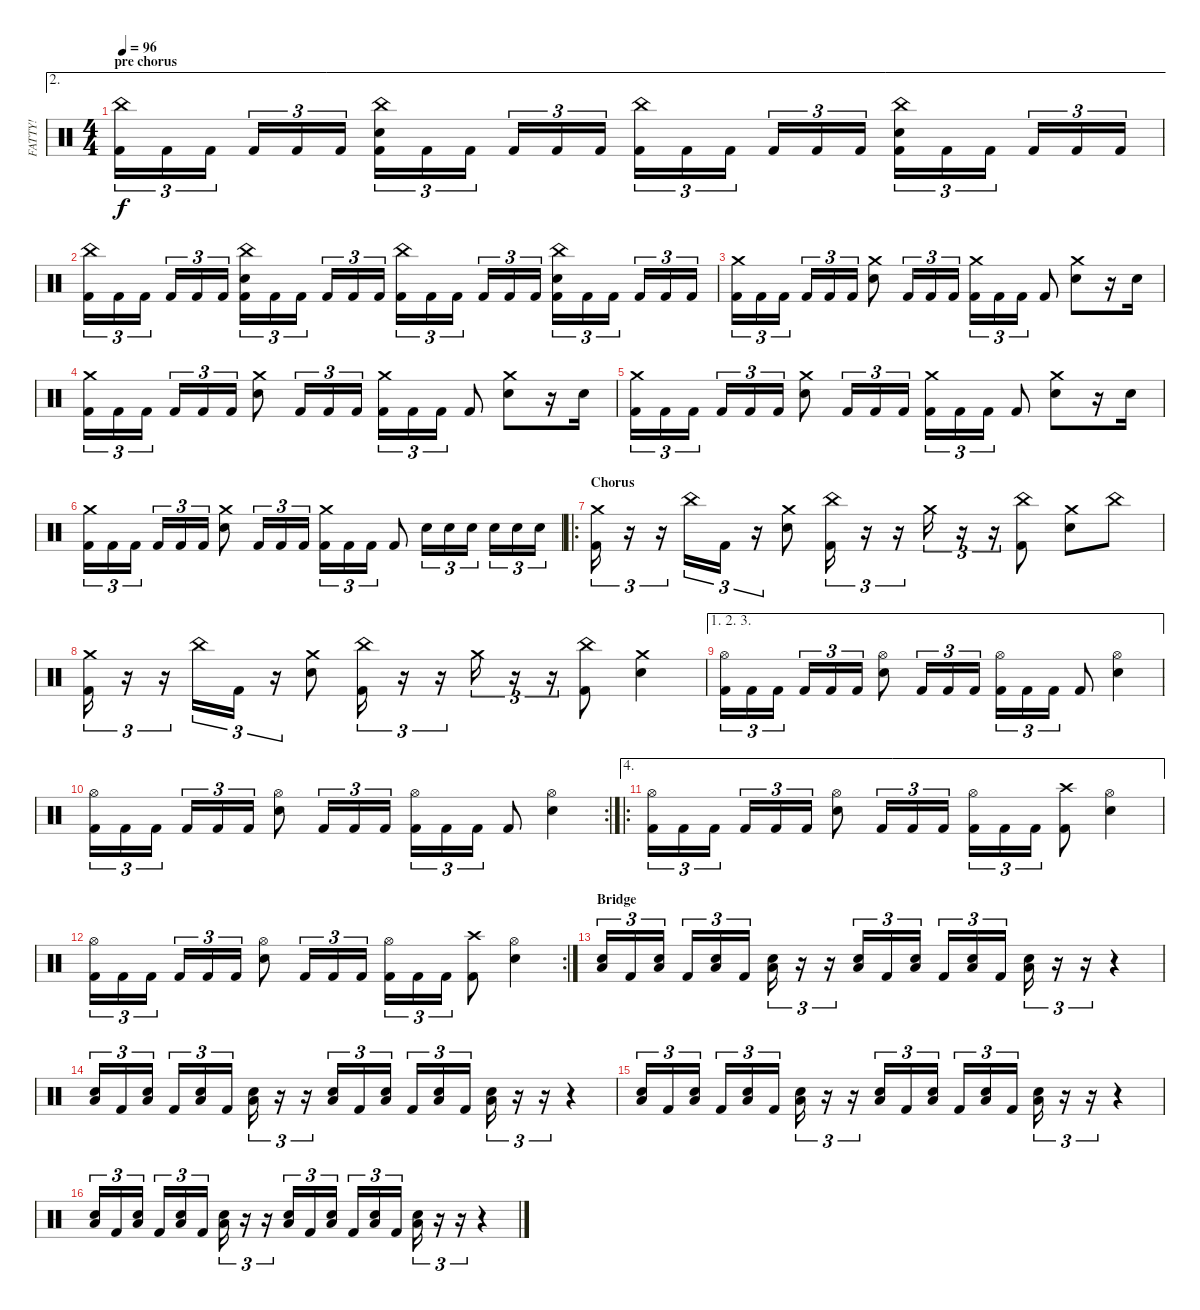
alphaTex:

\track ("FATTY!" "FATTY!") {instrument percussion}
\staff {score}
\articulation defaults
\ae 2
\ts (4 4)
\section ("" "pre chorus")
\tempo 96
\clef neutral
\ks c
("China (hit)" "Kick (hit) 2").16{tu (3 2) dy f} "Kick (hit) 2".16{tu (3 2)} "Kick (hit) 2".16{tu (3 2)} "Kick (hit) 2".16{tu (3 2)} "Kick (hit) 2".16{tu (3 2)} "Kick (hit) 2".16{tu (3 2)} ("China (hit)" "Electric Snare (hit)" "Kick (hit) 2").16{tu (3 2)} "Kick (hit) 2".16{tu (3 2)} "Kick (hit) 2".16{tu (3 2)} "Kick (hit) 2".16{tu (3 2)} "Kick (hit) 2".16{tu (3 2)} "Kick (hit) 2".16{tu (3 2)} ("China (hit)" "Kick (hit) 2").16{tu (3 2)} "Kick (hit) 2".16{tu (3 2)} "Kick (hit) 2".16{tu (3 2)} "Kick (hit) 2".16{tu (3 2)} "Kick (hit) 2".16{tu (3 2)} "Kick (hit) 2".16{tu (3 2)} ("China (hit)" "Electric Snare (hit)" "Kick (hit) 2").16{tu (3 2)} "Kick (hit) 2".16{tu (3 2)} "Kick (hit) 2".16{tu (3 2)} "Kick (hit) 2".16{tu (3 2)} "Kick (hit) 2".16{tu (3 2)} "Kick (hit) 2".16{tu (3 2)} |
("China (hit)" "Kick (hit) 2").16{tu (3 2)} "Kick (hit) 2".16{tu (3 2)} "Kick (hit) 2".16{tu (3 2)} "Kick (hit) 2".16{tu (3 2)} "Kick (hit) 2".16{tu (3 2)} "Kick (hit) 2".16{tu (3 2)} ("China (hit)" "Electric Snare (hit)" "Kick (hit) 2").16{tu (3 2)} "Kick (hit) 2".16{tu (3 2)} "Kick (hit) 2".16{tu (3 2)} "Kick (hit) 2".16{tu (3 2)} "Kick (hit) 2".16{tu (3 2)} "Kick (hit) 2".16{tu (3 2)} ("China (hit)" "Kick (hit) 2").16{tu (3 2)} "Kick (hit) 2".16{tu (3 2)} "Kick (hit) 2".16{tu (3 2)} "Kick (hit) 2".16{tu (3 2)} "Kick (hit) 2".16{tu (3 2)} "Kick (hit) 2".16{tu (3 2)} ("China (hit)" "Electric Snare (hit)" "Kick (hit) 2").16{tu (3 2)} "Kick (hit) 2".16{tu (3 2)} "Kick (hit) 2".16{tu (3 2)} "Kick (hit) 2".16{tu (3 2)} "Kick (hit) 2".16{tu (3 2)} "Kick (hit) 2".16{tu (3 2)} |
("Crash medium (hit)" "Kick (hit) 2").16{tu (3 2)} "Kick (hit) 2".16{tu (3 2)} "Kick (hit) 2".16{tu (3 2)} "Kick (hit) 2".16{tu (3 2)} "Kick (hit) 2".16{tu (3 2)} "Kick (hit) 2".16{tu (3 2)} ("Crash medium (hit)" "Electric Snare (hit)").8 "Kick (hit) 2".16{tu (3 2)} "Kick (hit) 2".16{tu (3 2)} "Kick (hit) 2".16{tu (3 2)} ("Crash medium (hit)" "Kick (hit) 2").16{tu (3 2)} "Kick (hit) 2".16{tu (3 2)} "Kick (hit) 2".16{tu (3 2)} "Kick (hit) 2".8 ("Crash medium (hit)" "Electric Snare (hit)").8 r.16 "Electric Snare (hit)".16 |
("Crash medium (hit)" "Kick (hit) 2").16{tu (3 2)} "Kick (hit) 2".16{tu (3 2)} "Kick (hit) 2".16{tu (3 2)} "Kick (hit) 2".16{tu (3 2)} "Kick (hit) 2".16{tu (3 2)} "Kick (hit) 2".16{tu (3 2)} ("Crash medium (hit)" "Electric Snare (hit)").8 "Kick (hit) 2".16{tu (3 2)} "Kick (hit) 2".16{tu (3 2)} "Kick (hit) 2".16{tu (3 2)} ("Crash medium (hit)" "Kick (hit) 2").16{tu (3 2)} "Kick (hit) 2".16{tu (3 2)} "Kick (hit) 2".16{tu (3 2)} "Kick (hit) 2".8 ("Crash medium (hit)" "Electric Snare (hit)").8 r.16 "Electric Snare (hit)".16 |
("Crash medium (hit)" "Kick (hit) 2").16{tu (3 2)} "Kick (hit) 2".16{tu (3 2)} "Kick (hit) 2".16{tu (3 2)} "Kick (hit) 2".16{tu (3 2)} "Kick (hit) 2".16{tu (3 2)} "Kick (hit) 2".16{tu (3 2)} ("Crash medium (hit)" "Electric Snare (hit)").8 "Kick (hit) 2".16{tu (3 2)} "Kick (hit) 2".16{tu (3 2)} "Kick (hit) 2".16{tu (3 2)} ("Crash medium (hit)" "Kick (hit) 2").16{tu (3 2)} "Kick (hit) 2".16{tu (3 2)} "Kick (hit) 2".16{tu (3 2)} "Kick (hit) 2".8 ("Crash medium (hit)" "Electric Snare (hit)").8 r.16 "Electric Snare (hit)".16 |
("Crash medium (hit)" "Kick (hit) 2").16{tu (3 2)} "Kick (hit) 2".16{tu (3 2)} "Kick (hit) 2".16{tu (3 2)} "Kick (hit) 2".16{tu (3 2)} "Kick (hit) 2".16{tu (3 2)} "Kick (hit) 2".16{tu (3 2)} ("Crash medium (hit)" "Electric Snare (hit)").8 "Kick (hit) 2".16{tu (3 2)} "Kick (hit) 2".16{tu (3 2)} "Kick (hit) 2".16{tu (3 2)} ("Crash medium (hit)" "Kick (hit) 2").16{tu (3 2)} "Kick (hit) 2".16{tu (3 2)} "Kick (hit) 2".16{tu (3 2)} "Kick (hit) 2".8 "Electric Snare (hit)".16{tu (3 2)} "Electric Snare (hit)".16{tu (3 2)} "Electric Snare (hit)".16{tu (3 2)} "Electric Snare (hit)".16{tu (3 2)} "Electric Snare (hit)".16{tu (3 2)} "Electric Snare (hit)".16{tu (3 2)} |
\ro
\section ("" "Chorus")
("Crash medium (hit)" "Kick (hit) 2").16{tu (3 2)} r.16{tu (3 2)} r.16{tu (3 2)} "China (hit)".16{tu (3 2)} "Kick (hit) 2".16{tu (3 2)} r.16{tu (3 2)} ("Crash medium (hit)" "Electric Snare (hit)").8 ("China (hit)" "Kick (hit) 2").16{tu (3 2)} r.16{tu (3 2)} r.16{tu (3 2)} "Crash medium (hit)".16{tu (3 2)} r.16{tu (3 2)} r.16{tu (3 2)} ("China (hit)" "Kick (hit) 2").8 ("Crash medium (hit)" "Electric Snare (hit)").8 "China (hit)".8 |
("Crash medium (hit)" "Kick (hit) 2").16{tu (3 2)} r.16{tu (3 2)} r.16{tu (3 2)} "China (hit)".16{tu (3 2)} "Kick (hit) 2".16{tu (3 2)} r.16{tu (3 2)} ("Crash medium (hit)" "Electric Snare (hit)").8 ("China (hit)" "Kick (hit) 2").16{tu (3 2)} r.16{tu (3 2)} r.16{tu (3 2)} "Crash medium (hit)".16{tu (3 2)} r.16{tu (3 2)} r.16{tu (3 2)} ("China (hit)" "Kick (hit) 2").8 ("Crash medium (hit)" "Electric Snare (hit)").4 |
\ae (1 2 3)
("Hi-Hat (open)" "Kick (hit) 2").16{tu (3 2)} "Kick (hit) 2".16{tu (3 2)} "Kick (hit) 2".16{tu (3 2)} "Kick (hit) 2".16{tu (3 2)} "Kick (hit) 2".16{tu (3 2)} "Kick (hit) 2".16{tu (3 2)} ("Hi-Hat (open)" "Electric Snare (hit)").8 "Kick (hit) 2".16{tu (3 2)} "Kick (hit) 2".16{tu (3 2)} "Kick (hit) 2".16{tu (3 2)} ("Hi-Hat (open)" "Kick (hit) 2").16{tu (3 2)} "Kick (hit) 2".16{tu (3 2)} "Kick (hit) 2".16{tu (3 2)} "Kick (hit) 2".8 ("Hi-Hat (open)" "Electric Snare (hit)").4 |
\rc 2
("Hi-Hat (open)" "Kick (hit) 2").16{tu (3 2)} "Kick (hit) 2".16{tu (3 2)} "Kick (hit) 2".16{tu (3 2)} "Kick (hit) 2".16{tu (3 2)} "Kick (hit) 2".16{tu (3 2)} "Kick (hit) 2".16{tu (3 2)} ("Hi-Hat (open)" "Electric Snare (hit)").8 "Kick (hit) 2".16{tu (3 2)} "Kick (hit) 2".16{tu (3 2)} "Kick (hit) 2".16{tu (3 2)} ("Hi-Hat (open)" "Kick (hit) 2").16{tu (3 2)} "Kick (hit) 2".16{tu (3 2)} "Kick (hit) 2".16{tu (3 2)} "Kick (hit) 2".8 ("Hi-Hat (open)" "Electric Snare (hit)").4 |
\ae 4
\ro
("Hi-Hat (open)" "Kick (hit) 2").16{tu (3 2)} "Kick (hit) 2".16{tu (3 2)} "Kick (hit) 2".16{tu (3 2)} "Kick (hit) 2".16{tu (3 2)} "Kick (hit) 2".16{tu (3 2)} "Kick (hit) 2".16{tu (3 2)} ("Hi-Hat (open)" "Electric Snare (hit)").8 "Kick (hit) 2".16{tu (3 2)} "Kick (hit) 2".16{tu (3 2)} "Kick (hit) 2".16{tu (3 2)} ("Hi-Hat (open)" "Kick (hit) 2").16{tu (3 2)} "Kick (hit) 2".16{tu (3 2)} "Kick (hit) 2".16{tu (3 2)} ("Crash high (hit)" "Kick (hit) 2").8 ("Hi-Hat (open)" "Electric Snare (hit)").4 |
\rc 2
("Hi-Hat (open)" "Kick (hit) 2").16{tu (3 2)} "Kick (hit) 2".16{tu (3 2)} "Kick (hit) 2".16{tu (3 2)} "Kick (hit) 2".16{tu (3 2)} "Kick (hit) 2".16{tu (3 2)} "Kick (hit) 2".16{tu (3 2)} ("Hi-Hat (open)" "Electric Snare (hit)").8 "Kick (hit) 2".16{tu (3 2)} "Kick (hit) 2".16{tu (3 2)} "Kick (hit) 2".16{tu (3 2)} ("Hi-Hat (open)" "Kick (hit) 2").16{tu (3 2)} "Kick (hit) 2".16{tu (3 2)} "Kick (hit) 2".16{tu (3 2)} ("Crash high (hit)" "Kick (hit) 2").8 ("Hi-Hat (open)" "Electric Snare (hit)").4 |
\section ("" "Bridge")
("Electric Snare (hit)" "Low Tom (hit)").16{tu (3 2)} "Kick (hit) 2".16{tu (3 2)} ("Electric Snare (hit)" "Low Tom (hit)").16{tu (3 2)} "Kick (hit) 2".16{tu (3 2)} ("Electric Snare (hit)" "Low Tom (hit)").16{tu (3 2)} "Kick (hit) 2".16{tu (3 2)} ("Electric Snare (hit)" "Low Tom (hit)").16{tu (3 2)} r.16{tu (3 2)} r.16{tu (3 2)} ("Low Tom (hit)" "Electric Snare (hit)").16{tu (3 2)} "Kick (hit) 2".16{tu (3 2)} ("Low Tom (hit)" "Electric Snare (hit)").16{tu (3 2)} "Kick (hit) 2".16{tu (3 2)} ("Low Tom (hit)" "Electric Snare (hit)").16{tu (3 2)} "Kick (hit) 2".16{tu (3 2)} ("Low Tom (hit)" "Electric Snare (hit)").16{tu (3 2)} r.16{tu (3 2)} r.16{tu (3 2)} r.4 |
("Electric Snare (hit)" "Low Tom (hit)").16{tu (3 2)} "Kick (hit) 2".16{tu (3 2)} ("Electric Snare (hit)" "Low Tom (hit)").16{tu (3 2)} "Kick (hit) 2".16{tu (3 2)} ("Electric Snare (hit)" "Low Tom (hit)").16{tu (3 2)} "Kick (hit) 2".16{tu (3 2)} ("Electric Snare (hit)" "Low Tom (hit)").16{tu (3 2)} r.16{tu (3 2)} r.16{tu (3 2)} ("Low Tom (hit)" "Electric Snare (hit)").16{tu (3 2)} "Kick (hit) 2".16{tu (3 2)} ("Low Tom (hit)" "Electric Snare (hit)").16{tu (3 2)} "Kick (hit) 2".16{tu (3 2)} ("Low Tom (hit)" "Electric Snare (hit)").16{tu (3 2)} "Kick (hit) 2".16{tu (3 2)} ("Low Tom (hit)" "Electric Snare (hit)").16{tu (3 2)} r.16{tu (3 2)} r.16{tu (3 2)} r.4 |
("Electric Snare (hit)" "Low Tom (hit)").16{tu (3 2)} "Kick (hit) 2".16{tu (3 2)} ("Electric Snare (hit)" "Low Tom (hit)").16{tu (3 2)} "Kick (hit) 2".16{tu (3 2)} ("Electric Snare (hit)" "Low Tom (hit)").16{tu (3 2)} "Kick (hit) 2".16{tu (3 2)} ("Electric Snare (hit)" "Low Tom (hit)").16{tu (3 2)} r.16{tu (3 2)} r.16{tu (3 2)} ("Low Tom (hit)" "Electric Snare (hit)").16{tu (3 2)} "Kick (hit) 2".16{tu (3 2)} ("Low Tom (hit)" "Electric Snare (hit)").16{tu (3 2)} "Kick (hit) 2".16{tu (3 2)} ("Low Tom (hit)" "Electric Snare (hit)").16{tu (3 2)} "Kick (hit) 2".16{tu (3 2)} ("Low Tom (hit)" "Electric Snare (hit)").16{tu (3 2)} r.16{tu (3 2)} r.16{tu (3 2)} r.4 |
("Electric Snare (hit)" "Low Tom (hit)").16{tu (3 2)} "Kick (hit) 2".16{tu (3 2)} ("Electric Snare (hit)" "Low Tom (hit)").16{tu (3 2)} "Kick (hit) 2".16{tu (3 2)} ("Electric Snare (hit)" "Low Tom (hit)").16{tu (3 2)} "Kick (hit) 2".16{tu (3 2)} ("Electric Snare (hit)" "Low Tom (hit)").16{tu (3 2)} r.16{tu (3 2)} r.16{tu (3 2)} ("Low Tom (hit)" "Electric Snare (hit)").16{tu (3 2)} "Kick (hit) 2".16{tu (3 2)} ("Low Tom (hit)" "Electric Snare (hit)").16{tu (3 2)} "Kick (hit) 2".16{tu (3 2)} ("Low Tom (hit)" "Electric Snare (hit)").16{tu (3 2)} "Kick (hit) 2".16{tu (3 2)} ("Low Tom (hit)" "Electric Snare (hit)").16{tu (3 2)} r.16{tu (3 2)} r.16{tu (3 2)} r.4
